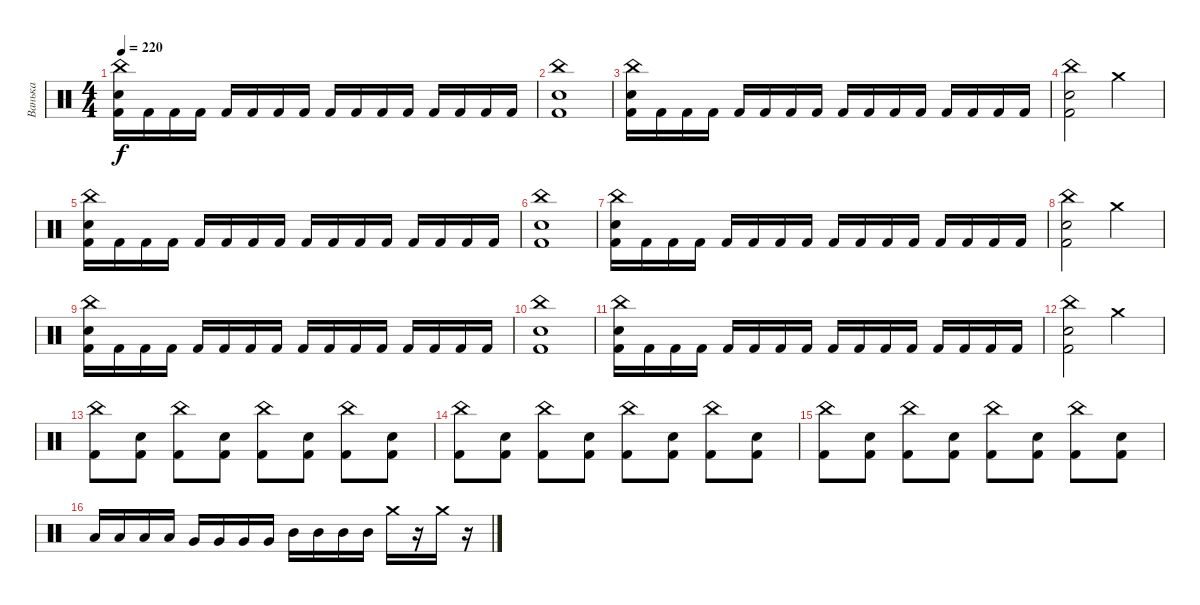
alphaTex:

\track ("Ванька" "Ванька") {instrument percussion}
\staff {score}
\articulation defaults
\ts (4 4)
\tempo 220
\clef neutral
\ks c
("China (hit)" "Snare (hit) 2" "Kick (hit) 2").16{dy f} "Kick (hit) 2".16 "Kick (hit) 2".16 "Kick (hit) 2".16 "Kick (hit) 2".16 "Kick (hit) 2".16 "Kick (hit) 2".16 "Kick (hit) 2".16 "Kick (hit) 2".16 "Kick (hit) 2".16 "Kick (hit) 2".16 "Kick (hit) 2".16 "Kick (hit) 2".16 "Kick (hit) 2".16 "Kick (hit) 2".16 "Kick (hit) 2".16 |
("China (hit)" "Snare (hit) 2" "Kick (hit) 2").1 |
("China (hit)" "Snare (hit) 2" "Kick (hit) 2").16 "Kick (hit) 2".16 "Kick (hit) 2".16 "Kick (hit) 2".16 "Kick (hit) 2".16 "Kick (hit) 2".16 "Kick (hit) 2".16 "Kick (hit) 2".16 "Kick (hit) 2".16 "Kick (hit) 2".16 "Kick (hit) 2".16 "Kick (hit) 2".16 "Kick (hit) 2".16 "Kick (hit) 2".16 "Kick (hit) 2".16 "Kick (hit) 2".16 |
("China (hit)" "Snare (hit) 2" "Kick (hit) 2").2 "Crash medium (hit)".2 |
("China (hit)" "Snare (hit) 2" "Kick (hit) 2").16 "Kick (hit) 2".16 "Kick (hit) 2".16 "Kick (hit) 2".16 "Kick (hit) 2".16 "Kick (hit) 2".16 "Kick (hit) 2".16 "Kick (hit) 2".16 "Kick (hit) 2".16 "Kick (hit) 2".16 "Kick (hit) 2".16 "Kick (hit) 2".16 "Kick (hit) 2".16 "Kick (hit) 2".16 "Kick (hit) 2".16 "Kick (hit) 2".16 |
("China (hit)" "Snare (hit) 2" "Kick (hit) 2").1 |
("China (hit)" "Snare (hit) 2" "Kick (hit) 2").16 "Kick (hit) 2".16 "Kick (hit) 2".16 "Kick (hit) 2".16 "Kick (hit) 2".16 "Kick (hit) 2".16 "Kick (hit) 2".16 "Kick (hit) 2".16 "Kick (hit) 2".16 "Kick (hit) 2".16 "Kick (hit) 2".16 "Kick (hit) 2".16 "Kick (hit) 2".16 "Kick (hit) 2".16 "Kick (hit) 2".16 "Kick (hit) 2".16 |
("China (hit)" "Snare (hit) 2" "Kick (hit) 2").2 "Crash medium (hit)".2 |
("China (hit)" "Snare (hit) 2" "Kick (hit) 2").16 "Kick (hit) 2".16 "Kick (hit) 2".16 "Kick (hit) 2".16 "Kick (hit) 2".16 "Kick (hit) 2".16 "Kick (hit) 2".16 "Kick (hit) 2".16 "Kick (hit) 2".16 "Kick (hit) 2".16 "Kick (hit) 2".16 "Kick (hit) 2".16 "Kick (hit) 2".16 "Kick (hit) 2".16 "Kick (hit) 2".16 "Kick (hit) 2".16 |
("China (hit)" "Snare (hit) 2" "Kick (hit) 2").1 |
("China (hit)" "Snare (hit) 2" "Kick (hit) 2").16 "Kick (hit) 2".16 "Kick (hit) 2".16 "Kick (hit) 2".16 "Kick (hit) 2".16 "Kick (hit) 2".16 "Kick (hit) 2".16 "Kick (hit) 2".16 "Kick (hit) 2".16 "Kick (hit) 2".16 "Kick (hit) 2".16 "Kick (hit) 2".16 "Kick (hit) 2".16 "Kick (hit) 2".16 "Kick (hit) 2".16 "Kick (hit) 2".16 |
("China (hit)" "Snare (hit) 2" "Kick (hit) 2").2 "Crash medium (hit)".2 |
("China (hit)" "Kick (hit) 2").8 ("Snare (hit) 2" "Kick (hit) 2").8 ("China (hit)" "Kick (hit) 2").8 ("Snare (hit) 2" "Kick (hit) 2").8 ("China (hit)" "Kick (hit) 2").8 ("Snare (hit) 2" "Kick (hit) 2").8 ("China (hit)" "Kick (hit) 2").8 ("Snare (hit) 2" "Kick (hit) 2").8 |
("China (hit)" "Kick (hit) 2").8 ("Snare (hit) 2" "Kick (hit) 2").8 ("China (hit)" "Kick (hit) 2").8 ("Snare (hit) 2" "Kick (hit) 2").8 ("China (hit)" "Kick (hit) 2").8 ("Snare (hit) 2" "Kick (hit) 2").8 ("China (hit)" "Kick (hit) 2").8 ("Snare (hit) 2" "Kick (hit) 2").8 |
("China (hit)" "Kick (hit) 2").8 ("Snare (hit) 2" "Kick (hit) 2").8 ("China (hit)" "Kick (hit) 2").8 ("Snare (hit) 2" "Kick (hit) 2").8 ("China (hit)" "Kick (hit) 2").8 ("Snare (hit) 2" "Kick (hit) 2").8 ("China (hit)" "Kick (hit) 2").8 ("Snare (hit) 2" "Kick (hit) 2").8 |
"Low Floor Tom (hit)".16 "Low Floor Tom (hit)".16 "Low Floor Tom (hit)".16 "Low Floor Tom (hit)".16 "Very Low Tom (hit)".16 "Very Low Tom (hit)".16 "Very Low Tom (hit)".16 "Very Low Tom (hit)".16 "Mid Tom (hit)".16 "Mid Tom (hit)".16 "Mid Tom (hit)".16 "Mid Tom (hit)".16 "Crash medium (hit)".16 r.16 "Crash medium (hit)".16 r.16
